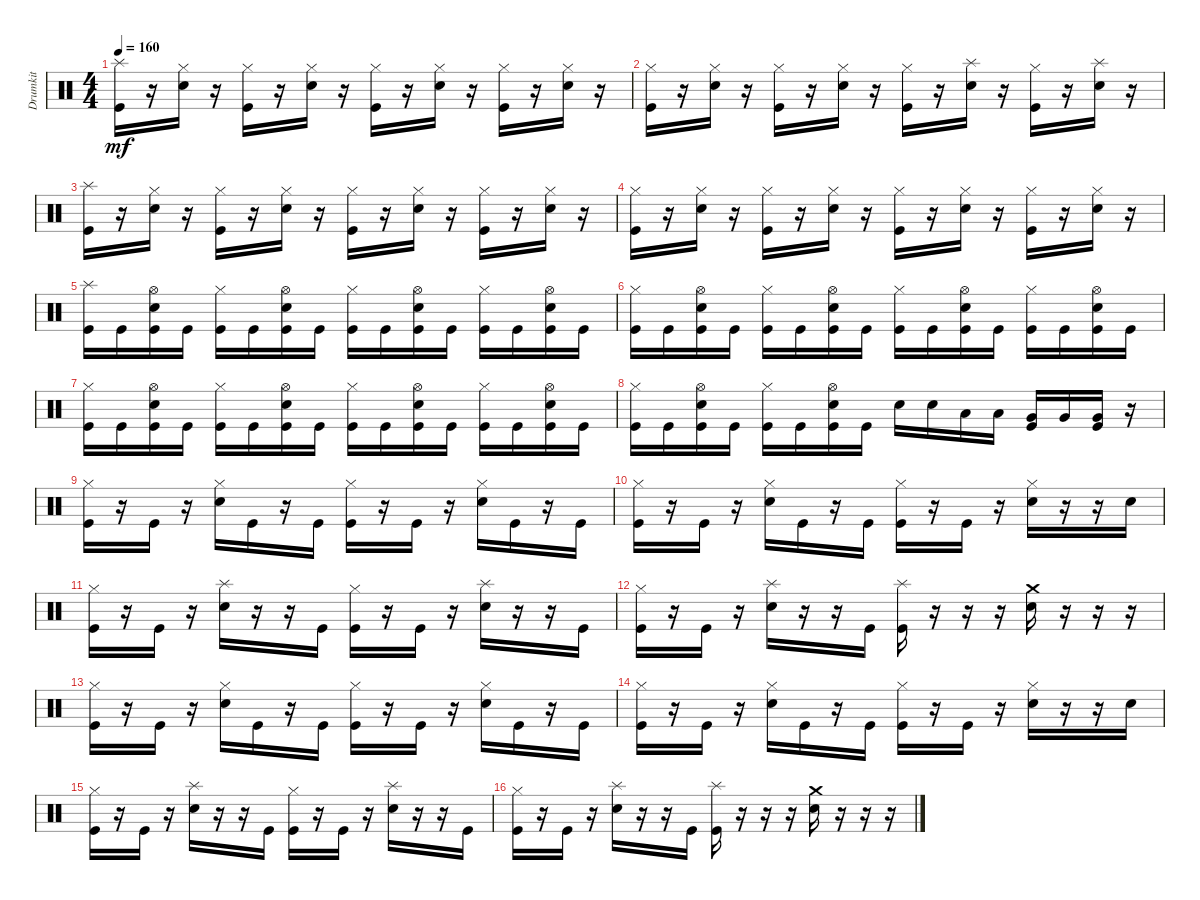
\track ("Drumkit" "Drumkit") {instrument percussion}
\staff {score}
\articulation defaults
\ts (4 4)
\tempo 160
\clef neutral
\ks c
("Splash (hit)" "Kick (hit)").16{dy mf} r.16 ("Snare (hit) 2" "Hi-Hat (closed)").16 r.16 ("Hi-Hat (closed)" "Kick (hit)").16 r.16 ("Hi-Hat (closed)" "Snare (hit) 2").16 r.16 ("Hi-Hat (closed)" "Kick (hit)").16 r.16 ("Hi-Hat (closed)" "Snare (hit) 2").16 r.16 ("Hi-Hat (closed)" "Kick (hit)").16 r.16 ("Hi-Hat (closed)" "Snare (hit) 2").16 r.16 |
("Kick (hit)" "Hi-Hat (closed)").16 r.16 ("Snare (hit) 2" "Hi-Hat (closed)").16 r.16 ("Hi-Hat (closed)" "Kick (hit)").16 r.16 ("Hi-Hat (closed)" "Snare (hit) 2").16 r.16 ("Hi-Hat (closed)" "Kick (hit)").16 r.16 ("Snare (hit) 2" "Splash (hit)").16 r.16 ("Hi-Hat (closed)" "Kick (hit)").16 r.16 ("Snare (hit) 2" "Splash (hit)").16 r.16 |
("Splash (hit)" "Kick (hit)").16 r.16 ("Snare (hit) 2" "Hi-Hat (closed)").16 r.16 ("Hi-Hat (closed)" "Kick (hit)").16 r.16 ("Hi-Hat (closed)" "Snare (hit) 2").16 r.16 ("Hi-Hat (closed)" "Kick (hit)").16 r.16 ("Hi-Hat (closed)" "Snare (hit) 2").16 r.16 ("Hi-Hat (closed)" "Kick (hit)").16 r.16 ("Hi-Hat (closed)" "Snare (hit) 2").16 r.16 |
("Kick (hit)" "Hi-Hat (closed)").16 r.16 ("Snare (hit) 2" "Hi-Hat (closed)").16 r.16 ("Hi-Hat (closed)" "Kick (hit)").16 r.16 ("Hi-Hat (closed)" "Snare (hit) 2").16 r.16 ("Hi-Hat (closed)" "Kick (hit)").16 r.16 ("Snare (hit) 2" "Hi-Hat (closed)").16 r.16 ("Hi-Hat (closed)" "Kick (hit)").16 r.16 ("Snare (hit) 2" "Hi-Hat (closed)").16 r.16 |
("Kick (hit)" "Splash (hit)").16 "Kick (hit)".16 ("Kick (hit)" "Snare (hit) 2" "Hi-Hat (open)").16 "Kick (hit)".16 ("Kick (hit)" "Hi-Hat (closed)").16 "Kick (hit)".16 ("Kick (hit)" "Snare (hit) 2" "Hi-Hat (open)").16 "Kick (hit)".16 ("Kick (hit)" "Hi-Hat (closed)").16 "Kick (hit)".16 ("Kick (hit)" "Snare (hit) 2" "Hi-Hat (open)").16 "Kick (hit)".16 ("Kick (hit)" "Hi-Hat (closed)").16 "Kick (hit)".16 ("Kick (hit)" "Snare (hit) 2" "Hi-Hat (open)").16 "Kick (hit)".16 |
("Kick (hit)" "Hi-Hat (closed)").16 "Kick (hit)".16 ("Kick (hit)" "Snare (hit) 2" "Hi-Hat (open)").16 "Kick (hit)".16 ("Kick (hit)" "Hi-Hat (closed)").16 "Kick (hit)".16 ("Kick (hit)" "Snare (hit) 2" "Hi-Hat (open)").16 "Kick (hit)".16 ("Kick (hit)" "Hi-Hat (closed)").16 "Kick (hit)".16 ("Kick (hit)" "Snare (hit) 2" "Hi-Hat (open)").16 "Kick (hit)".16 ("Kick (hit)" "Hi-Hat (closed)").16 "Kick (hit)".16 ("Kick (hit)" "Snare (hit) 2" "Hi-Hat (open)").16 "Kick (hit)".16 |
("Kick (hit)" "Hi-Hat (closed)").16 "Kick (hit)".16 ("Kick (hit)" "Hi-Hat (open)" "Snare (hit) 2").16 "Kick (hit)".16 ("Kick (hit)" "Hi-Hat (closed)").16 "Kick (hit)".16 ("Kick (hit)" "Hi-Hat (open)" "Snare (hit) 2").16 "Kick (hit)".16 ("Kick (hit)" "Hi-Hat (closed)").16 "Kick (hit)".16 ("Kick (hit)" "Hi-Hat (open)" "Snare (hit) 2").16 "Kick (hit)".16 ("Kick (hit)" "Hi-Hat (closed)").16 "Kick (hit)".16 ("Kick (hit)" "Hi-Hat (open)" "Snare (hit) 2").16 "Kick (hit)".16 |
("Kick (hit)" "Hi-Hat (closed)").16 "Kick (hit)".16 ("Kick (hit)" "Hi-Hat (open)" "Snare (hit) 2").16 "Kick (hit)".16 ("Kick (hit)" "Hi-Hat (closed)").16 "Kick (hit)".16 ("Kick (hit)" "Hi-Hat (open)" "Snare (hit) 2").16 "Kick (hit)".16 "Snare (hit) 2".16 "Snare (hit) 2".16 "Low Tom (hit)".16 "Low Tom (hit)".16 ("Kick (hit)" "Very Low Tom (hit)").16 "Very Low Tom (hit)".16 ("Kick (hit)" "Very Low Tom (hit)").16 r.16 |
("Kick (hit)" "Hi-Hat (closed)").16 r.16 "Kick (hit)".16 r.16 ("Hi-Hat (closed)" "Snare (hit) 2").16 "Kick (hit)".16 r.16 "Kick (hit)".16 ("Hi-Hat (closed)" "Kick (hit)").16 r.16 "Kick (hit)".16 r.16 ("Hi-Hat (closed)" "Snare (hit) 2").16 "Kick (hit)".16 r.16 "Kick (hit)".16 |
("Kick (hit)" "Hi-Hat (closed)").16 r.16 "Kick (hit)".16 r.16 ("Hi-Hat (closed)" "Snare (hit) 2").16 "Kick (hit)".16 r.16 "Kick (hit)".16 ("Hi-Hat (closed)" "Kick (hit)").16 r.16 "Kick (hit)".16 r.16 ("Hi-Hat (closed)" "Snare (hit) 2").16 r.16 r.16 "Snare (hit) 2".16 |
("Kick (hit)" "Hi-Hat (closed)").16 r.16 "Kick (hit)".16 r.16 ("Snare (hit) 2" "Splash (hit)").16 r.16 r.16 "Kick (hit)".16 ("Hi-Hat (closed)" "Kick (hit)").16 r.16 "Kick (hit)".16 r.16 ("Snare (hit) 2" "Splash (hit)").16 r.16 r.16 "Kick (hit)".16 |
("Kick (hit)" "Hi-Hat (closed)").16 r.16 "Kick (hit)".16 r.16 ("Snare (hit) 2" "Splash (hit)").16 r.16 r.16 "Kick (hit)".16 ("Kick (hit)" "Splash (hit)").16 r.16 r.16 r.16 ("Snare (hit) 2" "Crash medium (hit)").16 r.16 r.16 r.16 |
("Kick (hit)" "Hi-Hat (closed)").16 r.16 "Kick (hit)".16 r.16 ("Hi-Hat (closed)" "Snare (hit) 2").16 "Kick (hit)".16 r.16 "Kick (hit)".16 ("Hi-Hat (closed)" "Kick (hit)").16 r.16 "Kick (hit)".16 r.16 ("Hi-Hat (closed)" "Snare (hit) 2").16 "Kick (hit)".16 r.16 "Kick (hit)".16 |
("Kick (hit)" "Hi-Hat (closed)").16 r.16 "Kick (hit)".16 r.16 ("Hi-Hat (closed)" "Snare (hit) 2").16 "Kick (hit)".16 r.16 "Kick (hit)".16 ("Hi-Hat (closed)" "Kick (hit)").16 r.16 "Kick (hit)".16 r.16 ("Hi-Hat (closed)" "Snare (hit) 2").16 r.16 r.16 "Snare (hit) 2".16 |
("Kick (hit)" "Hi-Hat (closed)").16 r.16 "Kick (hit)".16 r.16 ("Snare (hit) 2" "Splash (hit)").16 r.16 r.16 "Kick (hit)".16 ("Hi-Hat (closed)" "Kick (hit)").16 r.16 "Kick (hit)".16 r.16 ("Snare (hit) 2" "Splash (hit)").16 r.16 r.16 "Kick (hit)".16 |
("Kick (hit)" "Hi-Hat (closed)").16 r.16 "Kick (hit)".16 r.16 ("Snare (hit) 2" "Splash (hit)").16 r.16 r.16 "Kick (hit)".16 ("Kick (hit)" "Splash (hit)").16 r.16 r.16 r.16 ("Snare (hit) 2" "Crash medium (hit)").16 r.16 r.16 r.16
